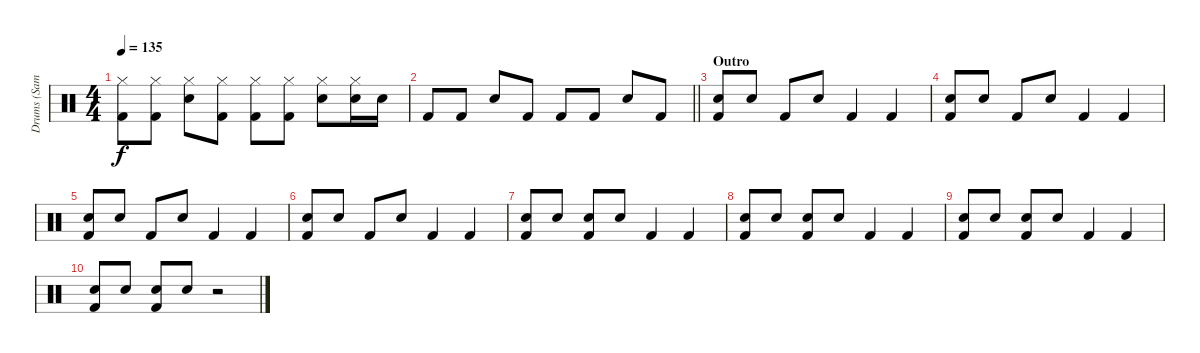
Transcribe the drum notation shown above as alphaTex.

\track ("Drums (Sam Fogarino)" "Drums (Sam") {instrument percussion}
\staff {score}
\articulation defaults
\ts (4 4)
\tempo 135
\clef neutral
\ks c
("Hi-Hat (closed)" "Kick (hit) 2").8{dy f} ("Hi-Hat (closed)" "Kick (hit) 2").8 ("Hi-Hat (closed)" "Snare (hit) 2").8 ("Hi-Hat (closed)" "Kick (hit) 2").8 ("Hi-Hat (closed)" "Kick (hit) 2").8 ("Hi-Hat (closed)" "Kick (hit) 2").8 ("Hi-Hat (closed)" "Snare (hit) 2").8 ("Hi-Hat (closed)" "Snare (hit) 2").16 "Snare (hit) 2".16 |
\barLineRight lightlight "Kick (hit) 2".8 "Kick (hit) 2".8 "Snare (hit) 2".8 "Kick (hit) 2".8 "Kick (hit) 2".8 "Kick (hit) 2".8 "Snare (hit) 2".8 "Kick (hit) 2".8
|
\section ("" "Outro")
("Snare (hit) 2" "Kick (hit) 2").8 "Snare (hit) 2".8 "Kick (hit) 2".8 "Snare (hit) 2".8 "Kick (hit) 2".4 "Kick (hit) 2".4 |
("Snare (hit) 2" "Kick (hit) 2").8 "Snare (hit) 2".8 "Kick (hit) 2".8 "Snare (hit) 2".8 "Kick (hit) 2".4 "Kick (hit) 2".4 |
("Snare (hit) 2" "Kick (hit) 2").8 "Snare (hit) 2".8 "Kick (hit) 2".8 "Snare (hit) 2".8 "Kick (hit) 2".4 "Kick (hit) 2".4 |
("Snare (hit) 2" "Kick (hit) 2").8 "Snare (hit) 2".8 "Kick (hit) 2".8 "Snare (hit) 2".8 "Kick (hit) 2".4 "Kick (hit) 2".4 |
("Snare (hit) 2" "Kick (hit) 2").8 "Snare (hit) 2".8 ("Snare (hit) 2" "Kick (hit) 2").8 "Snare (hit) 2".8 "Kick (hit) 2".4 "Kick (hit) 2".4 |
("Snare (hit) 2" "Kick (hit) 2").8 "Snare (hit) 2".8 ("Snare (hit) 2" "Kick (hit) 2").8 "Snare (hit) 2".8 "Kick (hit) 2".4 "Kick (hit) 2".4 |
("Snare (hit) 2" "Kick (hit) 2").8 "Snare (hit) 2".8 ("Snare (hit) 2" "Kick (hit) 2").8 "Snare (hit) 2".8 "Kick (hit) 2".4 "Kick (hit) 2".4 |
("Snare (hit) 2" "Kick (hit) 2").8 "Snare (hit) 2".8 ("Snare (hit) 2" "Kick (hit) 2").8 "Snare (hit) 2".8 r.2
